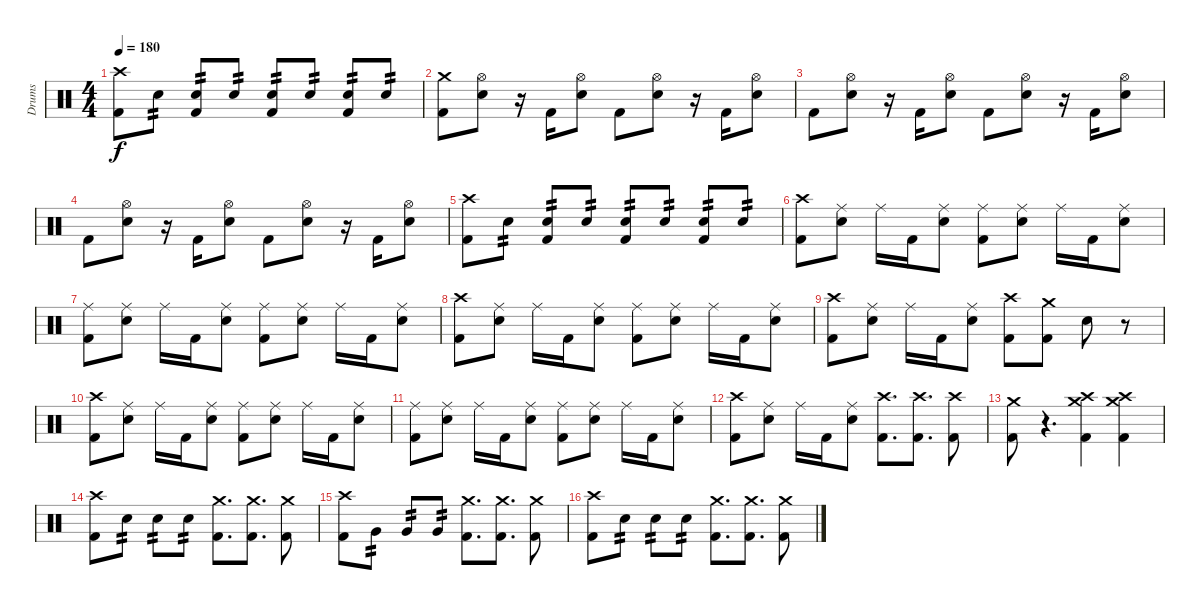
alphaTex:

\track ("Drums" "Drums") {instrument percussion}
\staff {score}
\articulation defaults
\ts (4 4)
\tempo 180
\clef neutral
\ks c
("Crash high (hit)" "Kick (hit) 2").8{dy f} "Electric Snare (hit)".8{tp 2} ("Electric Snare (hit)" "Kick (hit) 2").8{tp 2} "Electric Snare (hit)".8{tp 2} ("Electric Snare (hit)" "Kick (hit) 2").8{tp 2} "Electric Snare (hit)".8{tp 2} ("Electric Snare (hit)" "Kick (hit) 2").8{tp 2} "Electric Snare (hit)".8{tp 2} |
("Crash medium (hit)" "Kick (hit) 2").8 ("Hi-Hat (open)" "Electric Snare (hit)").8 r.16 "Kick (hit) 2".16 ("Hi-Hat (open)" "Electric Snare (hit)").8 "Kick (hit) 2".8 ("Hi-Hat (open)" "Electric Snare (hit)").8 r.16 "Kick (hit) 2".16 ("Hi-Hat (open)" "Electric Snare (hit)").8 |
"Kick (hit) 2".8 ("Hi-Hat (open)" "Electric Snare (hit)").8 r.16 "Kick (hit) 2".16 ("Hi-Hat (open)" "Electric Snare (hit)").8 "Kick (hit) 2".8 ("Hi-Hat (open)" "Electric Snare (hit)").8 r.16 "Kick (hit) 2".16 ("Hi-Hat (open)" "Electric Snare (hit)").8 |
"Kick (hit) 2".8 ("Hi-Hat (open)" "Electric Snare (hit)").8 r.16 "Kick (hit) 2".16 ("Hi-Hat (open)" "Electric Snare (hit)").8 "Kick (hit) 2".8 ("Hi-Hat (open)" "Electric Snare (hit)").8 r.16 "Kick (hit) 2".16 ("Hi-Hat (open)" "Electric Snare (hit)").8 |
("Crash high (hit)" "Kick (hit) 2").8 "Electric Snare (hit)".8{tp 2} ("Electric Snare (hit)" "Kick (hit) 2").8{tp 2} "Electric Snare (hit)".8{tp 2} ("Electric Snare (hit)" "Kick (hit) 2").8{tp 2} "Electric Snare (hit)".8{tp 2} ("Electric Snare (hit)" "Kick (hit) 2").8{tp 2} "Electric Snare (hit)".8{tp 2} |
("Crash high (hit)" "Kick (hit) 2").8 ("Ride (middle)" "Electric Snare (hit)").8 "Ride (middle)".16 "Kick (hit) 2".16 ("Ride (middle)" "Electric Snare (hit)").8 ("Ride (middle)" "Kick (hit) 2").8 ("Ride (middle)" "Electric Snare (hit)").8 "Ride (middle)".16 "Kick (hit) 2".16 ("Ride (middle)" "Electric Snare (hit)").8 |
("Ride (middle)" "Kick (hit) 2").8 ("Ride (middle)" "Electric Snare (hit)").8 "Ride (middle)".16 "Kick (hit) 2".16 ("Ride (middle)" "Electric Snare (hit)").8 ("Ride (middle)" "Kick (hit) 2").8 ("Ride (middle)" "Electric Snare (hit)").8 "Ride (middle)".16 "Kick (hit) 2".16 ("Ride (middle)" "Electric Snare (hit)").8 |
("Crash high (hit)" "Kick (hit) 2").8 ("Ride (middle)" "Electric Snare (hit)").8 "Ride (middle)".16 "Kick (hit) 2".16 ("Ride (middle)" "Electric Snare (hit)").8 ("Ride (middle)" "Kick (hit) 2").8 ("Ride (middle)" "Electric Snare (hit)").8 "Ride (middle)".16 "Kick (hit) 2".16 ("Ride (middle)" "Electric Snare (hit)").8 |
("Crash high (hit)" "Kick (hit) 2").8 ("Ride (middle)" "Electric Snare (hit)").8 "Ride (middle)".16 "Kick (hit) 2".16 ("Ride (middle)" "Electric Snare (hit)").8 ("Crash high (hit)" "Kick (hit) 2").8 ("Crash medium (hit)" "Kick (hit) 2").8 "Electric Snare (hit)".8 r.8 |
("Crash high (hit)" "Kick (hit) 2").8 ("Ride (middle)" "Electric Snare (hit)").8 "Ride (middle)".16 "Kick (hit) 2".16 ("Ride (middle)" "Electric Snare (hit)").8 ("Ride (middle)" "Kick (hit) 2").8 ("Ride (middle)" "Electric Snare (hit)").8 "Ride (middle)".16 "Kick (hit) 2".16 ("Ride (middle)" "Electric Snare (hit)").8 |
("Ride (middle)" "Kick (hit) 2").8 ("Ride (middle)" "Electric Snare (hit)").8 "Ride (middle)".16 "Kick (hit) 2".16 ("Ride (middle)" "Electric Snare (hit)").8 ("Ride (middle)" "Kick (hit) 2").8 ("Ride (middle)" "Electric Snare (hit)").8 "Ride (middle)".16 "Kick (hit) 2".16 ("Ride (middle)" "Electric Snare (hit)").8 |
("Crash high (hit)" "Kick (hit) 2").8 ("Ride (middle)" "Electric Snare (hit)").8 "Ride (middle)".16 "Kick (hit) 2".16 ("Ride (middle)" "Electric Snare (hit)").8 ("Crash high (hit)" "Kick (hit) 2").8{d} ("Crash high (hit)" "Kick (hit) 2").8{d} ("Crash high (hit)" "Kick (hit) 2").8 |
("Crash medium (hit)" "Kick (hit) 2").8 r.4{d} ("Crash high (hit)" "Crash medium (hit)" "Kick (hit) 2").4 ("Crash high (hit)" "Crash medium (hit)" "Kick (hit) 2").4 |
("Crash high (hit)" "Kick (hit) 2").8 "Electric Snare (hit)".8{tp 2} "Electric Snare (hit)".8{tp 2} "Electric Snare (hit)".8{tp 2} ("Crash medium (hit)" "Kick (hit) 2").8{d} ("Crash medium (hit)" "Kick (hit) 2").8{d} ("Crash medium (hit)" "Kick (hit) 2").8 |
("Crash high (hit)" "Kick (hit) 2").8 "Very Low Tom (hit)".8{tp 2} "Very Low Tom (hit)".8{tp 2} "Very Low Tom (hit)".8{tp 2} ("Crash medium (hit)" "Kick (hit) 2").8{d} ("Crash medium (hit)" "Kick (hit) 2").8{d} ("Crash medium (hit)" "Kick (hit) 2").8 |
("Crash high (hit)" "Kick (hit) 2").8 "Electric Snare (hit)".8{tp 2} "Electric Snare (hit)".8{tp 2} "Electric Snare (hit)".8{tp 2} ("Crash medium (hit)" "Kick (hit) 2").8{d} ("Crash medium (hit)" "Kick (hit) 2").8{d} ("Crash medium (hit)" "Kick (hit) 2").8
